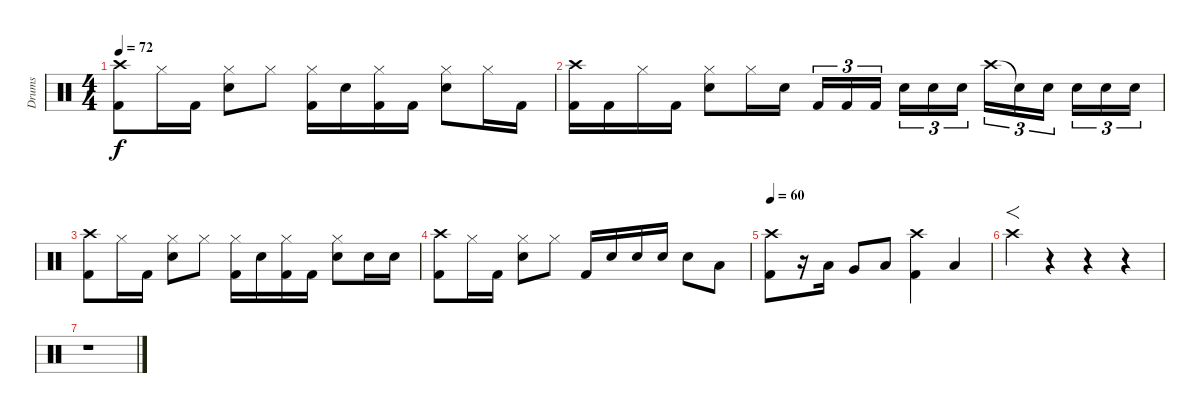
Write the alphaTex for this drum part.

\track ("Drums" "Drums") {instrument percussion}
\staff {score}
\articulation defaults
\ts (4 4)
\tempo 72
\clef neutral
\ks c
("Crash high (hit)" "Kick (hit) 2").8{dy f} "Hi-Hat (closed)".16 "Kick (hit) 2".16 ("Hi-Hat (closed)" "Electric Snare (hit)").8 "Hi-Hat (closed)".8 ("Hi-Hat (closed)" "Kick (hit) 2").16 "Electric Snare (hit)".16 ("Hi-Hat (closed)" "Kick (hit) 2").16 "Kick (hit) 2".16 ("Hi-Hat (closed)" "Electric Snare (hit)").8 "Hi-Hat (closed)".16 "Kick (hit) 2".16 |
("Crash high (hit)" "Kick (hit) 2").16 "Kick (hit) 2".16 "Hi-Hat (closed)".16 "Kick (hit) 2".16 ("Hi-Hat (closed)" "Electric Snare (hit)").8 "Hi-Hat (closed)".16 "Electric Snare (hit)".16 "Kick (hit) 2".16{tu (3 2)} "Kick (hit) 2".16{tu (3 2)} "Kick (hit) 2".16{tu (3 2)} "Electric Snare (hit)".16{tu (3 2)} "Electric Snare (hit)".16{tu (3 2)} "Electric Snare (hit)".16{tu (3 2)} "Crash high (hit)".16{tu (3 2)} "Snare (hit)"{t}.16{tu (3 2)} "Electric Snare (hit)".16{tu (3 2)} "Electric Snare (hit)".16{tu (3 2)} "Electric Snare (hit)".16{tu (3 2)} "Electric Snare (hit)".16{tu (3 2)} |
("Crash high (hit)" "Kick (hit) 2").8 "Hi-Hat (closed)".16 "Kick (hit) 2".16 ("Hi-Hat (closed)" "Electric Snare (hit)").8 "Hi-Hat (closed)".8 ("Hi-Hat (closed)" "Kick (hit) 2").16 "Electric Snare (hit)".16 ("Hi-Hat (closed)" "Kick (hit) 2").16 "Kick (hit) 2".16 ("Hi-Hat (closed)" "Electric Snare (hit)").8 "Electric Snare (hit)".16 "Electric Snare (hit)".16 |
("Crash high (hit)" "Kick (hit) 2").8 "Hi-Hat (closed)".16 "Kick (hit) 2".16 ("Hi-Hat (closed)" "Electric Snare (hit)").8 "Hi-Hat (closed)".8 "Kick (hit) 2".16 "Electric Snare (hit)".16 "Electric Snare (hit)".16 "Electric Snare (hit)".16 "Electric Snare (hit)".8 "Low Tom (hit)".8 |
\tempo 60
("Crash high (hit)" "Kick (hit) 2").8 r.16 "Low Tom (hit)".16 "Very Low Tom (hit)".8 "Low Floor Tom (hit)".8 ("Crash high (hit)" "Kick (hit) 2").4 "Low Floor Tom (hit)".4 |
"Crash high (hit)".4{f} r.4 r.4 r.4 |
r.1
